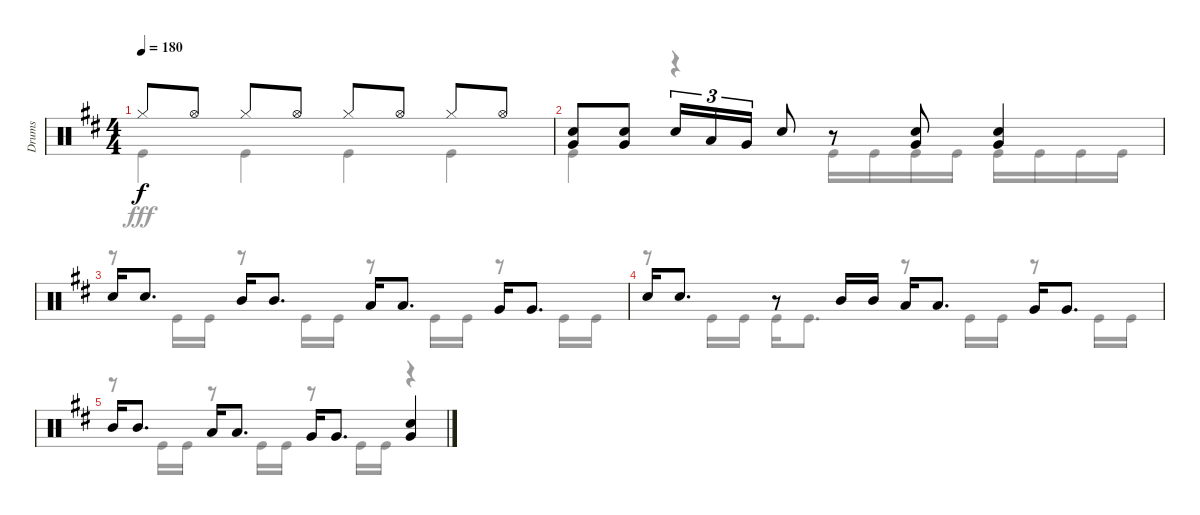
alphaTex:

\track ("Drums" "Drums") {instrument percussion}
\staff {score}
\articulation defaults
\voice
\ts (4 4)
\tempo 180
\clef neutral
\ks d "Hi-Hat (closed)".8{dy f} "Hi-Hat (open)".8 "Hi-Hat (closed)".8 "Hi-Hat (open)".8 "Hi-Hat (closed)".8 "Hi-Hat (open)".8 "Hi-Hat (closed)".8 "Hi-Hat (open)".8
|
("Snare (hit) 2" "Very Low Tom (hit)").8 ("Snare (hit) 2" "Very Low Tom (hit)").8 "Snare (hit) 2".16{tu (3 2)} "Low Tom (hit)".16{tu (3 2)} "Very Low Tom (hit)".16{tu (3 2)} "Snare (hit) 2".8 r.8 ("Snare (hit) 2" "Very Low Tom (hit)").8 ("Snare (hit) 2" "Very Low Tom (hit)").4 |
"Snare (hit) 2".16 "Snare (hit) 2".8{d} "Mid Tom (hit)".16 "Mid Tom (hit)".8{d} "Low Tom (hit)".16 "Low Tom (hit)".8{d} "Very Low Tom (hit)".16 "Very Low Tom (hit)".8{d} |
"Snare (hit) 2".16 "Snare (hit) 2".8{d} r.8 "Mid Tom (hit)".16 "Mid Tom (hit)".16 "Low Tom (hit)".16 "Low Tom (hit)".8{d} "Very Low Tom (hit)".16 "Very Low Tom (hit)".8{d} |
"Mid Tom (hit)".16 "Mid Tom (hit)".8{d} "Low Tom (hit)".16 "Low Tom (hit)".8{d} "Very Low Tom (hit)".16 "Very Low Tom (hit)".8{d} ("Snare (hit) 2" "Very Low Tom (hit)").4
\voice
\clef neutral
\ottava regular
\simile none
\ks d "Kick (hit)".4{dy fff} "Kick (hit)".4 "Kick (hit)".4 "Kick (hit)".4
|
"Kick (hit)".4 r.4 "Kick (hit)".16 "Kick (hit)".16 "Kick (hit)".16 "Kick (hit)".16 "Kick (hit)".16 "Kick (hit)".16 "Kick (hit)".16 "Kick (hit)".16 |
r.8 "Kick (hit)".16 "Kick (hit)".16 r.8 "Kick (hit)".16 "Kick (hit)".16 r.8 "Kick (hit)".16 "Kick (hit)".16 r.8 "Kick (hit)".16 "Kick (hit)".16 |
r.8 "Kick (hit)".16 "Kick (hit)".16 "Kick (hit)".16 "Kick (hit)".8{d} r.8 "Kick (hit)".16 "Kick (hit)".16 r.8 "Kick (hit)".16 "Kick (hit)".16 |
r.8 "Kick (hit)".16 "Kick (hit)".16 r.8 "Kick (hit)".16 "Kick (hit)".16 r.8 "Kick (hit)".16 "Kick (hit)".16 r.4
